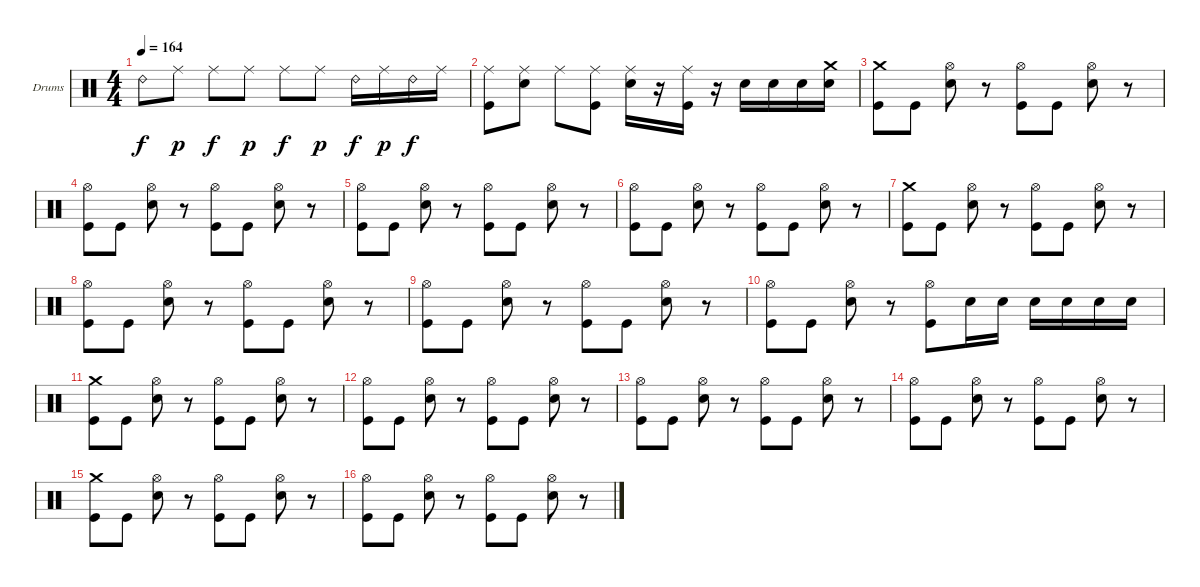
\defaultSystemsLayout 4
\bracketExtendMode nobrackets
\firstSystemTrackNameOrientation horizontal
\otherSystemsTrackNameOrientation horizontal
\track ("Dave Abbruzzese" "Drums") {solo instrument percussion}
\staff {score}
\articulation defaults
\ts (4 4)
\tempo 164
\clef neutral
\ks c "Ride (bell) 2".8{dy f} "Ride (middle)".8{dy p} "Ride (middle)".8{dy f} "Ride (middle)".8{dy p} "Ride (middle)".8{dy f} "Ride (middle)".8{dy p} "Ride (bell) 2".16{dy f} "Ride (middle)".16{dy p} "Ride (bell) 2".16{dy f} "Ride (middle)".16
|
("Ride (middle)" "Kick (hit)").8 ("Snare (hit) 2" "Ride (middle)").8 "Ride (middle)".8 ("Kick (hit)" "Ride (middle)").8 ("Snare (hit) 2" "Ride (middle)").16 r.16 ("Kick (hit)" "Ride (middle)").16 r.16 "Snare (hit) 2".16 "Snare (hit) 2".16 "Snare (hit) 2".16 ("Crash medium (hit)" "Snare (hit) 2").16 |
("Kick (hit)" "Crash medium (hit)").8 "Kick (hit)".8 ("Snare (hit) 2" "Hi-Hat (open)").8 r.8 ("Kick (hit)" "Hi-Hat (open)").8 "Kick (hit)".8 ("Snare (hit) 2" "Hi-Hat (open)").8 r.8 |
("Kick (hit)" "Hi-Hat (open)").8 "Kick (hit)".8 ("Snare (hit) 2" "Hi-Hat (open)").8 r.8 ("Kick (hit)" "Hi-Hat (open)").8 "Kick (hit)".8 ("Snare (hit) 2" "Hi-Hat (open)").8 r.8 |
("Kick (hit)" "Hi-Hat (open)").8 "Kick (hit)".8 ("Snare (hit) 2" "Hi-Hat (open)").8 r.8 ("Kick (hit)" "Hi-Hat (open)").8 "Kick (hit)".8 ("Snare (hit) 2" "Hi-Hat (open)").8 r.8 |
("Kick (hit)" "Hi-Hat (open)").8 "Kick (hit)".8 ("Snare (hit) 2" "Hi-Hat (open)").8 r.8 ("Kick (hit)" "Hi-Hat (open)").8 "Kick (hit)".8 ("Snare (hit) 2" "Hi-Hat (open)").8 r.8 |
("Kick (hit)" "Crash medium (hit)").8 "Kick (hit)".8 ("Snare (hit) 2" "Hi-Hat (open)").8 r.8 ("Kick (hit)" "Hi-Hat (open)").8 "Kick (hit)".8 ("Snare (hit) 2" "Hi-Hat (open)").8 r.8 |
("Kick (hit)" "Hi-Hat (open)").8 "Kick (hit)".8 ("Snare (hit) 2" "Hi-Hat (open)").8 r.8 ("Kick (hit)" "Hi-Hat (open)").8 "Kick (hit)".8 ("Snare (hit) 2" "Hi-Hat (open)").8 r.8 |
("Kick (hit)" "Hi-Hat (open)").8 "Kick (hit)".8 ("Snare (hit) 2" "Hi-Hat (open)").8 r.8 ("Kick (hit)" "Hi-Hat (open)").8 "Kick (hit)".8 ("Snare (hit) 2" "Hi-Hat (open)").8 r.8 |
("Kick (hit)" "Hi-Hat (open)").8 "Kick (hit)".8 ("Snare (hit) 2" "Hi-Hat (open)").8 r.8 ("Kick (hit)" "Hi-Hat (open)").8 "Snare (hit) 2".16 "Snare (hit) 2".16 "Snare (hit) 2".16 "Snare (hit) 2".16 "Snare (hit) 2".16 "Snare (hit) 2".16 |
("Kick (hit)" "Crash medium (hit)").8 "Kick (hit)".8 ("Snare (hit) 2" "Hi-Hat (open)").8 r.8 ("Kick (hit)" "Hi-Hat (open)").8 "Kick (hit)".8 ("Snare (hit) 2" "Hi-Hat (open)").8 r.8 |
("Kick (hit)" "Hi-Hat (open)").8 "Kick (hit)".8 ("Snare (hit) 2" "Hi-Hat (open)").8 r.8 ("Kick (hit)" "Hi-Hat (open)").8 "Kick (hit)".8 ("Snare (hit) 2" "Hi-Hat (open)").8 r.8 |
("Kick (hit)" "Hi-Hat (open)").8 "Kick (hit)".8 ("Snare (hit) 2" "Hi-Hat (open)").8 r.8 ("Kick (hit)" "Hi-Hat (open)").8 "Kick (hit)".8 ("Snare (hit) 2" "Hi-Hat (open)").8 r.8 |
("Kick (hit)" "Hi-Hat (open)").8 "Kick (hit)".8 ("Snare (hit) 2" "Hi-Hat (open)").8 r.8 ("Kick (hit)" "Hi-Hat (open)").8 "Kick (hit)".8 ("Snare (hit) 2" "Hi-Hat (open)").8 r.8 |
("Kick (hit)" "Crash medium (hit)").8 "Kick (hit)".8 ("Snare (hit) 2" "Hi-Hat (open)").8 r.8 ("Kick (hit)" "Hi-Hat (open)").8 "Kick (hit)".8 ("Snare (hit) 2" "Hi-Hat (open)").8 r.8 |
("Kick (hit)" "Hi-Hat (open)").8 "Kick (hit)".8 ("Snare (hit) 2" "Hi-Hat (open)").8 r.8 ("Kick (hit)" "Hi-Hat (open)").8 "Kick (hit)".8 ("Snare (hit) 2" "Hi-Hat (open)").8 r.8
